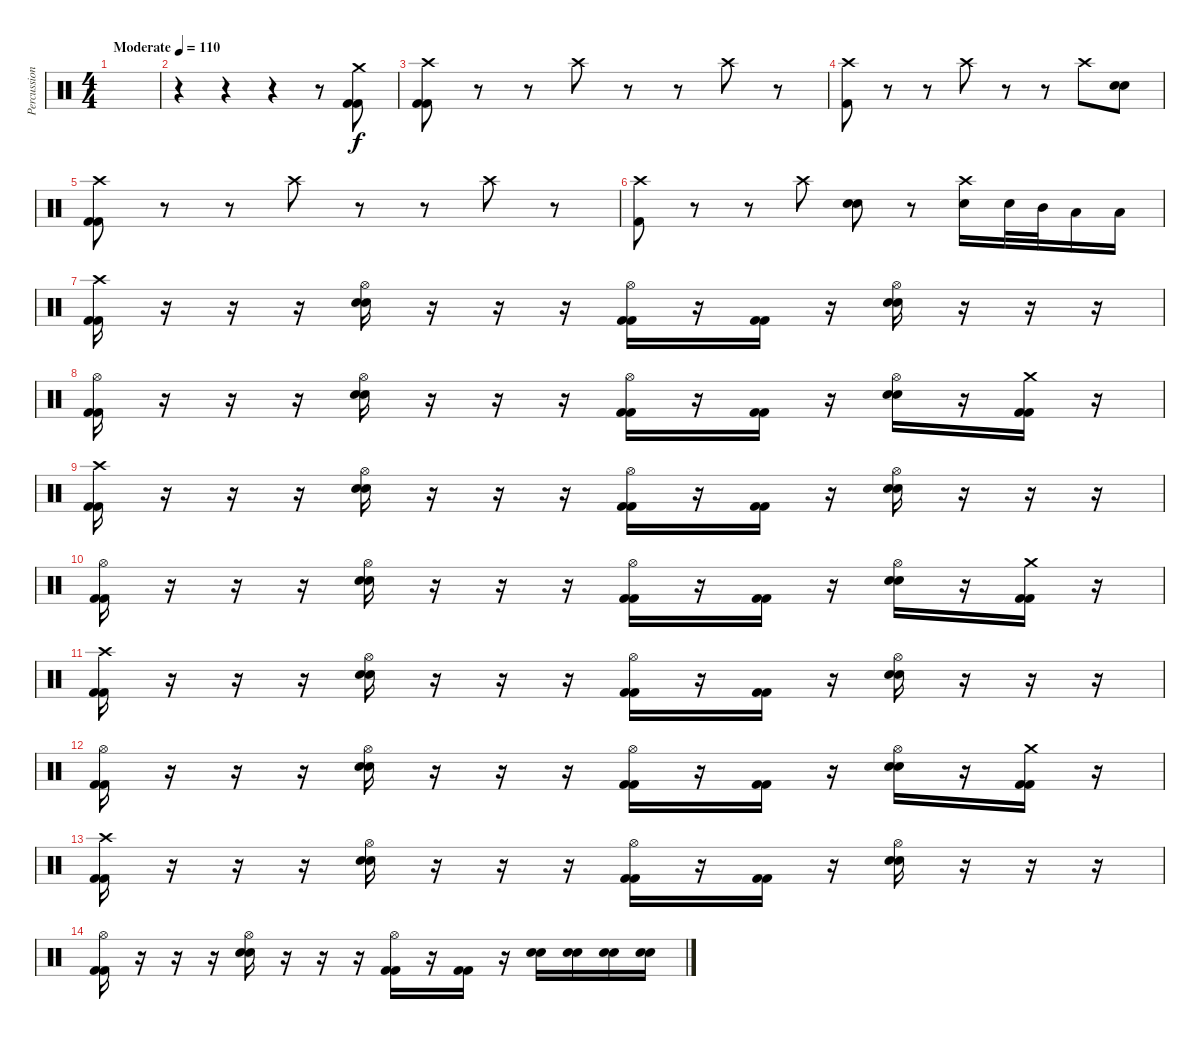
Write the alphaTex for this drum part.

\track ("Percussion" "Percussion") {instrument percussion}
\staff {score}
\articulation defaults
\ts (4 4)
\tempo (110 "Moderate")
\clef neutral
\ks c
|
r.4 r.4 r.4 r.8 ("Crash medium (hit)" "Kick (hit) 2" "Kick (hit) 2").8 |
("Crash high (hit)" "Kick (hit) 2" "Kick (hit) 2").8 r.8 r.8 "Crash high (hit)".8 r.8 r.8 "Crash high (hit)".8 r.8 |
("Crash high (hit)" "Kick (hit) 2").8 r.8 r.8 "Crash high (hit)".8 r.8 r.8 "Crash high (hit)".8 ("Electric Snare (hit)" "Electric Snare (hit)").8 |
("Crash high (hit)" "Kick (hit) 2" "Kick (hit) 2").8 r.8 r.8 "Crash high (hit)".8 r.8 r.8 "Crash high (hit)".8 r.8 |
("Crash high (hit)" "Kick (hit) 2").8 r.8 r.8 "Crash high (hit)".8 ("Electric Snare (hit)" "Electric Snare (hit)").8 r.8 ("Crash high (hit)" "Electric Snare (hit)").16 "Electric Snare (hit)".32 "Mid Tom (hit)".32 "Low Tom (hit)".16 "Low Tom (hit)".16 |
("Crash high (hit)" "Kick (hit) 2" "Kick (hit) 2").16 r.16 r.16 r.16 ("Hi-Hat (open)" "Electric Snare (hit)" "Electric Snare (hit)").16 r.16 r.16 r.16 ("Hi-Hat (open)" "Kick (hit) 2" "Kick (hit) 2").16 r.16 ("Kick (hit) 2" "Kick (hit) 2").16 r.16 ("Hi-Hat (open)" "Electric Snare (hit)" "Electric Snare (hit)").16 r.16 r.16 r.16 |
("Hi-Hat (open)" "Kick (hit) 2" "Kick (hit) 2").16 r.16 r.16 r.16 ("Hi-Hat (open)" "Electric Snare (hit)" "Electric Snare (hit)").16 r.16 r.16 r.16 ("Hi-Hat (open)" "Kick (hit) 2" "Kick (hit) 2").16 r.16 ("Kick (hit) 2" "Kick (hit) 2").16 r.16 ("Hi-Hat (open)" "Electric Snare (hit)" "Electric Snare (hit)").16 r.16 ("Crash medium (hit)" "Kick (hit) 2" "Kick (hit) 2").16 r.16 |
("Crash high (hit)" "Kick (hit) 2" "Kick (hit) 2").16 r.16 r.16 r.16 ("Hi-Hat (open)" "Electric Snare (hit)" "Electric Snare (hit)").16 r.16 r.16 r.16 ("Hi-Hat (open)" "Kick (hit) 2" "Kick (hit) 2").16 r.16 ("Kick (hit) 2" "Kick (hit) 2").16 r.16 ("Hi-Hat (open)" "Electric Snare (hit)" "Electric Snare (hit)").16 r.16 r.16 r.16 |
("Hi-Hat (open)" "Kick (hit) 2" "Kick (hit) 2").16 r.16 r.16 r.16 ("Hi-Hat (open)" "Electric Snare (hit)" "Electric Snare (hit)").16 r.16 r.16 r.16 ("Hi-Hat (open)" "Kick (hit) 2" "Kick (hit) 2").16 r.16 ("Kick (hit) 2" "Kick (hit) 2").16 r.16 ("Hi-Hat (open)" "Electric Snare (hit)" "Electric Snare (hit)").16 r.16 ("Crash medium (hit)" "Kick (hit) 2" "Kick (hit) 2").16 r.16 |
("Crash high (hit)" "Kick (hit) 2" "Kick (hit) 2").16 r.16 r.16 r.16 ("Hi-Hat (open)" "Electric Snare (hit)" "Electric Snare (hit)").16 r.16 r.16 r.16 ("Hi-Hat (open)" "Kick (hit) 2" "Kick (hit) 2").16 r.16 ("Kick (hit) 2" "Kick (hit) 2").16 r.16 ("Hi-Hat (open)" "Electric Snare (hit)" "Electric Snare (hit)").16 r.16 r.16 r.16 |
("Hi-Hat (open)" "Kick (hit) 2" "Kick (hit) 2").16 r.16 r.16 r.16 ("Hi-Hat (open)" "Electric Snare (hit)" "Electric Snare (hit)").16 r.16 r.16 r.16 ("Hi-Hat (open)" "Kick (hit) 2" "Kick (hit) 2").16 r.16 ("Kick (hit) 2" "Kick (hit) 2").16 r.16 ("Hi-Hat (open)" "Electric Snare (hit)" "Electric Snare (hit)").16 r.16 ("Crash medium (hit)" "Kick (hit) 2" "Kick (hit) 2").16 r.16 |
("Crash high (hit)" "Kick (hit) 2" "Kick (hit) 2").16 r.16 r.16 r.16 ("Hi-Hat (open)" "Electric Snare (hit)" "Electric Snare (hit)").16 r.16 r.16 r.16 ("Hi-Hat (open)" "Kick (hit) 2" "Kick (hit) 2").16 r.16 ("Kick (hit) 2" "Kick (hit) 2").16 r.16 ("Hi-Hat (open)" "Electric Snare (hit)" "Electric Snare (hit)").16 r.16 r.16 r.16 |
("Hi-Hat (open)" "Kick (hit) 2" "Kick (hit) 2").16 r.16 r.16 r.16 ("Hi-Hat (open)" "Electric Snare (hit)" "Electric Snare (hit)").16 r.16 r.16 r.16 ("Hi-Hat (open)" "Kick (hit) 2" "Kick (hit) 2").16 r.16 ("Kick (hit) 2" "Kick (hit) 2").16 r.16 ("Electric Snare (hit)" "Electric Snare (hit)").16 ("Electric Snare (hit)" "Electric Snare (hit)").16 ("Electric Snare (hit)" "Electric Snare (hit)").16 ("Electric Snare (hit)" "Electric Snare (hit)").16
